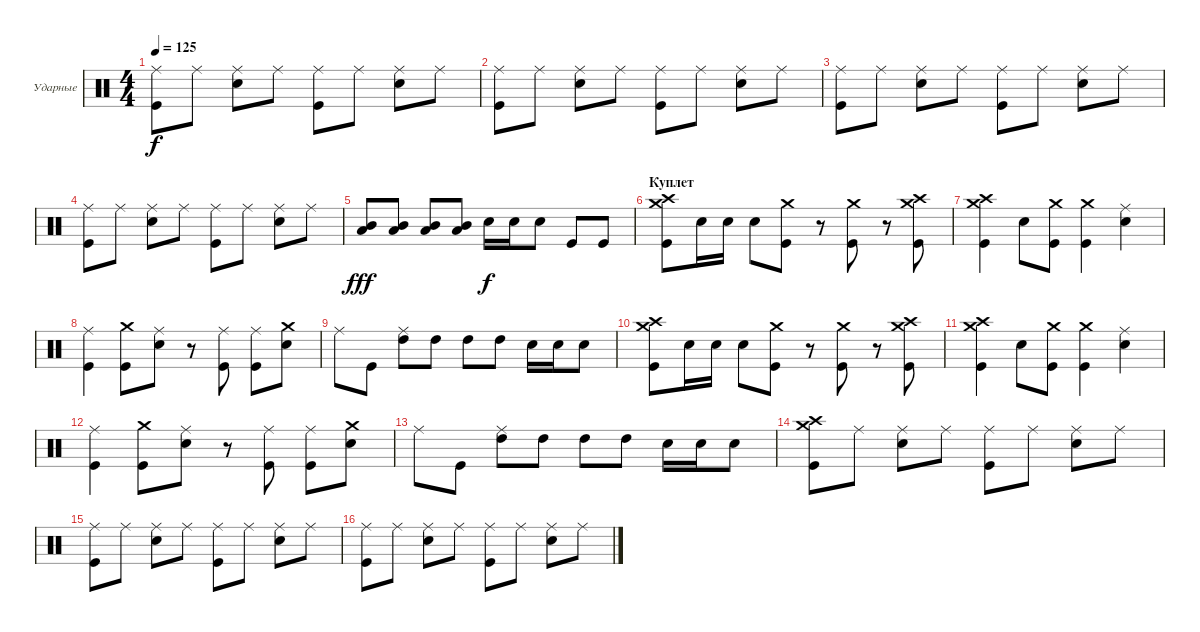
\bracketExtendMode groupsimilarinstruments
\firstSystemTrackNameOrientation horizontal
\otherSystemsTrackNameOrientation horizontal
\track ("Максим Удалов" "Ударные") {instrument percussion}
\staff {score}
\articulation defaults
\ts (4 4)
\tempo 125
\clef neutral
\ks c
("Kick (hit)" "Ride (middle)").8{dy f} "Ride (middle)".8 ("Snare (hit) 2" "Ride (middle)").8 "Ride (middle)".8 ("Kick (hit)" "Ride (middle)").8 "Ride (middle)".8 ("Snare (hit) 2" "Ride (middle)").8 "Ride (middle)".8 |
("Kick (hit)" "Ride (middle)").8 "Ride (middle)".8 ("Snare (hit) 2" "Ride (middle)").8 "Ride (middle)".8 ("Kick (hit)" "Ride (middle)").8 "Ride (middle)".8 ("Snare (hit) 2" "Ride (middle)").8 "Ride (middle)".8 |
("Kick (hit)" "Ride (middle)").8 "Ride (middle)".8 ("Snare (hit) 2" "Ride (middle)").8 "Ride (middle)".8 ("Kick (hit)" "Ride (middle)").8 "Ride (middle)".8 ("Snare (hit) 2" "Ride (middle)").8 "Ride (middle)".8 |
("Kick (hit)" "Ride (middle)").8 "Ride (middle)".8 ("Snare (hit) 2" "Ride (middle)").8 "Ride (middle)".8 ("Kick (hit)" "Ride (middle)").8 "Ride (middle)".8 ("Snare (hit) 2" "Ride (middle)").8 "Ride (middle)".8 |
("Mid Tom (hit)" "Low Tom (hit)").8{dy fff} ("Mid Tom (hit)" "Low Tom (hit)").8 ("Mid Tom (hit)" "Low Tom (hit)").8 ("Mid Tom (hit)" "Low Tom (hit)").8 "Snare (hit) 2".16{dy f} "Snare (hit) 2".16 "Snare (hit) 2".8 "Kick (hit)".8 "Kick (hit)".8 |
\section ("" "Куплет")
("Kick (hit)" "Crash medium (hit)" "Crash high (hit)").8 "Snare (hit) 2".16 "Snare (hit) 2".16 "Snare (hit) 2".8 ("Kick (hit)" "Crash medium (hit)").8 r.8 ("Kick (hit)" "Crash medium (hit)").8 r.8 ("Kick (hit)" "Crash high (hit)" "Crash medium (hit)").8 |
("Kick (hit)" "Crash medium (hit)" "Crash high (hit)").4 "Snare (hit) 2".8 ("Kick (hit)" "Crash medium (hit)").8 ("Kick (hit)" "Crash medium (hit)").4 ("Snare (hit) 2" "Ride (middle)").4 |
("Kick (hit)" "Ride (middle)").4 ("Kick (hit)" "Crash medium (hit)").8 ("Snare (hit) 2" "Ride (middle)").8 r.8 ("Kick (hit)" "Ride (middle)").8 ("Kick (hit)" "Ride (middle)").8 ("Snare (hit) 2" "Crash medium (hit)").8 |
"Ride (middle)".8 "Kick (hit)".8 ("High Tom (hit)" "Ride (middle)").8 "High Tom (hit)".8 "High Tom (hit)".8 "High Tom (hit)".8 "Snare (hit) 2".16 "Snare (hit) 2".16 "Snare (hit) 2".8 |
("Kick (hit)" "Crash medium (hit)" "Crash high (hit)").8 "Snare (hit) 2".16 "Snare (hit) 2".16 "Snare (hit) 2".8 ("Kick (hit)" "Crash medium (hit)").8 r.8 ("Kick (hit)" "Crash medium (hit)").8 r.8 ("Kick (hit)" "Crash high (hit)" "Crash medium (hit)").8 |
("Kick (hit)" "Crash medium (hit)" "Crash high (hit)").4 "Snare (hit) 2".8 ("Kick (hit)" "Crash medium (hit)").8 ("Kick (hit)" "Crash medium (hit)").4 ("Snare (hit) 2" "Ride (middle)").4 |
("Kick (hit)" "Ride (middle)").4 ("Kick (hit)" "Crash medium (hit)").8 ("Snare (hit) 2" "Ride (middle)").8 r.8 ("Kick (hit)" "Ride (middle)").8 ("Kick (hit)" "Ride (middle)").8 ("Snare (hit) 2" "Crash medium (hit)").8 |
"Ride (middle)".8 "Kick (hit)".8 ("High Tom (hit)" "Ride (middle)").8 "High Tom (hit)".8 "High Tom (hit)".8 "High Tom (hit)".8 "Snare (hit) 2".16 "Snare (hit) 2".16 "Snare (hit) 2".8 |
("Kick (hit)" "Crash medium (hit)" "Crash high (hit)").8 "Ride (middle)".8 ("Snare (hit) 2" "Ride (middle)").8 "Ride (middle)".8 ("Kick (hit)" "Ride (middle)").8 "Ride (middle)".8 ("Snare (hit) 2" "Ride (middle)").8 "Ride (middle)".8 |
("Kick (hit)" "Ride (middle)").8 "Ride (middle)".8 ("Snare (hit) 2" "Ride (middle)").8 "Ride (middle)".8 ("Kick (hit)" "Ride (middle)").8 "Ride (middle)".8 ("Snare (hit) 2" "Ride (middle)").8 "Ride (middle)".8 |
("Kick (hit)" "Ride (middle)").8 "Ride (middle)".8 ("Snare (hit) 2" "Ride (middle)").8 "Ride (middle)".8 ("Kick (hit)" "Ride (middle)").8 "Ride (middle)".8 ("Snare (hit) 2" "Ride (middle)").8 "Ride (middle)".8
